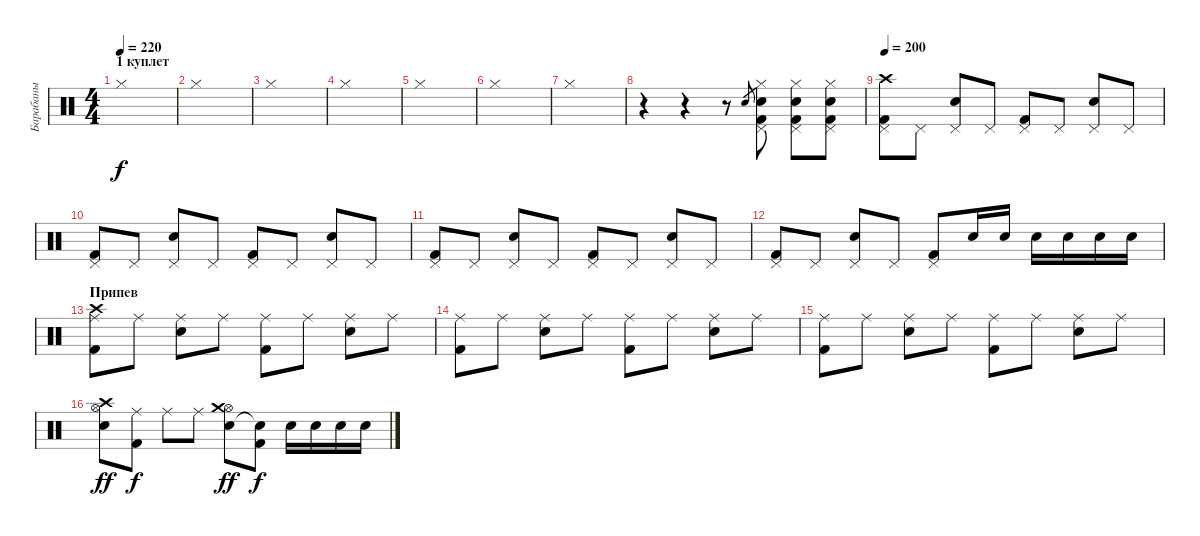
\track ("Барабаны" "Барабаны") {instrument percussion}
\staff {score}
\articulation defaults
\ts (4 4)
\section ("" "1 куплет")
\tempo 220
\tempo 230
\tempo 220
\clef neutral
\ks c "Hi-Hat (closed)".1{dy f}
|
"Hi-Hat (closed)".1 |
"Hi-Hat (closed)".1 |
"Hi-Hat (closed)".1 |
"Hi-Hat (closed)".1 |
"Hi-Hat (closed)".1 |
"Hi-Hat (closed)".1 |
r.4 r.4 r.8 "Electric Snare (hit)".8{gr} ("Pedal Hi-Hat (hit)" "Electric Snare (hit)" "Kick (hit) 2" "Hi-Hat (closed)").8 ("Pedal Hi-Hat (hit)" "Electric Snare (hit)" "Kick (hit) 2" "Hi-Hat (closed)").8 ("Pedal Hi-Hat (hit)" "Electric Snare (hit)" "Kick (hit) 2" "Hi-Hat (closed)").8 |
\tempo 200
("Pedal Hi-Hat (hit)" "Crash high (hit)" "Kick (hit) 2").8 "Pedal Hi-Hat (hit)".8 ("Pedal Hi-Hat (hit)" "Electric Snare (hit)").8 "Pedal Hi-Hat (hit)".8 ("Pedal Hi-Hat (hit)" "Kick (hit) 2").8 "Pedal Hi-Hat (hit)".8 ("Pedal Hi-Hat (hit)" "Electric Snare (hit)").8 "Pedal Hi-Hat (hit)".8 |
("Pedal Hi-Hat (hit)" "Kick (hit) 2").8 "Pedal Hi-Hat (hit)".8 ("Pedal Hi-Hat (hit)" "Electric Snare (hit)").8 "Pedal Hi-Hat (hit)".8 ("Pedal Hi-Hat (hit)" "Kick (hit) 2").8 "Pedal Hi-Hat (hit)".8 ("Pedal Hi-Hat (hit)" "Electric Snare (hit)").8 "Pedal Hi-Hat (hit)".8 |
("Pedal Hi-Hat (hit)" "Kick (hit) 2").8 "Pedal Hi-Hat (hit)".8 ("Pedal Hi-Hat (hit)" "Electric Snare (hit)").8 "Pedal Hi-Hat (hit)".8 ("Pedal Hi-Hat (hit)" "Kick (hit) 2").8 "Pedal Hi-Hat (hit)".8 ("Pedal Hi-Hat (hit)" "Electric Snare (hit)").8 "Pedal Hi-Hat (hit)".8 |
("Pedal Hi-Hat (hit)" "Kick (hit) 2").8 "Pedal Hi-Hat (hit)".8 ("Pedal Hi-Hat (hit)" "Electric Snare (hit)").8 "Pedal Hi-Hat (hit)".8 ("Pedal Hi-Hat (hit)" "Kick (hit) 2").8 "Electric Snare (hit)".16 "Electric Snare (hit)".16 "Electric Snare (hit)".16 "Electric Snare (hit)".16 "Electric Snare (hit)".16 "Electric Snare (hit)".16 |
\section ("" "Припев")
("Ride (middle)" "Crash high (hit)" "Kick (hit) 2").8 "Ride (middle)".8 ("Ride (middle)" "Electric Snare (hit)").8 "Ride (middle)".8 ("Ride (middle)" "Kick (hit) 2").8 "Ride (middle)".8 ("Ride (middle)" "Electric Snare (hit)").8 "Ride (middle)".8 |
("Ride (middle)" "Kick (hit) 2").8 "Ride (middle)".8 ("Ride (middle)" "Electric Snare (hit)").8 "Ride (middle)".8 ("Ride (middle)" "Kick (hit) 2").8 "Ride (middle)".8 ("Ride (middle)" "Electric Snare (hit)").8 "Ride (middle)".8 |
("Ride (middle)" "Kick (hit) 2").8 "Ride (middle)".8 ("Ride (middle)" "Electric Snare (hit)").8 "Ride (middle)".8 ("Ride (middle)" "Kick (hit) 2").8 "Ride (middle)".8 ("Ride (middle)" "Electric Snare (hit)").8 "Ride (middle)".8 |
("Hi-Hat (open)" "Electric Snare (hit)" "Crash high (hit)").8{dy ff} ("Ride (middle)" "Kick (hit) 2").8{dy f} "Ride (middle)".8 "Ride (middle)".8 ("Hi-Hat (open)" "Electric Snare (hit)" "Crash medium (hit)").8{dy ff} ("Kick (hit) 2" "Snare (hit)"{t}).8{dy f} "Electric Snare (hit)".16 "Electric Snare (hit)".16 "Electric Snare (hit)".16 "Electric Snare (hit)".16
